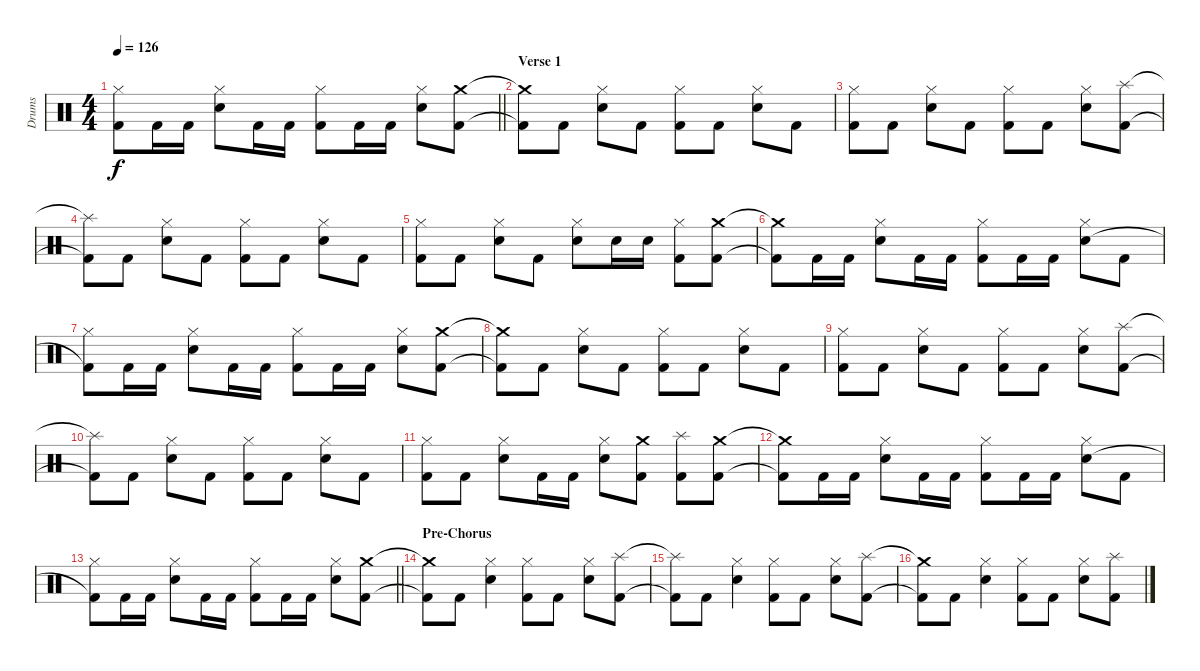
\track ("Drums" "Drums") {instrument percussion}
\staff {score}
\articulation defaults
\ts (4 4)
\tempo 126
\clef neutral
\barLineRight lightlight
\ks c
("Hi-Hat (closed)" "Kick (hit) 2"{t}).8{dy f} "Kick (hit) 2".16 "Kick (hit) 2".16 ("Hi-Hat (closed)" "Snare (hit) 2").8 "Kick (hit) 2".16 "Kick (hit) 2".16 ("Hi-Hat (closed)" "Kick (hit) 2").8 "Kick (hit) 2".16 "Kick (hit) 2".16 ("Hi-Hat (closed)" "Snare (hit) 2").8 ("Crash medium (hit)" "Kick (hit) 2").8 |
\section ("" "Verse 1")
("Crash medium (hit)"{t} "Kick (hit) 2"{t}).8 "Kick (hit) 2".8 ("Hi-Hat (closed)" "Snare (hit) 2").8 "Kick (hit) 2".8 ("Hi-Hat (closed)" "Kick (hit) 2").8 "Kick (hit) 2".8 ("Hi-Hat (closed)" "Snare (hit) 2").8 "Kick (hit) 2".8 |
("Hi-Hat (closed)" "Kick (hit) 2").8 "Kick (hit) 2".8 ("Hi-Hat (closed)" "Snare (hit) 2").8 "Kick (hit) 2".8 ("Hi-Hat (closed)" "Kick (hit) 2").8 "Kick (hit) 2".8 ("Hi-Hat (closed)" "Snare (hit) 2").8 ("Splash (hit)" "Kick (hit) 2").8 |
("Splash (hit)"{t} "Kick (hit) 2"{t}).8 "Kick (hit) 2".8 ("Hi-Hat (closed)" "Snare (hit) 2").8 "Kick (hit) 2".8 ("Hi-Hat (closed)" "Kick (hit) 2").8 "Kick (hit) 2".8 ("Hi-Hat (closed)" "Snare (hit) 2").8 "Kick (hit) 2".8 |
("Hi-Hat (closed)" "Kick (hit) 2").8 "Kick (hit) 2".8 ("Hi-Hat (closed)" "Snare (hit) 2").8 "Kick (hit) 2".8 ("Hi-Hat (closed)" "Snare (hit) 2").8 "Snare (hit) 2".16 "Snare (hit) 2".16 ("Hi-Hat (closed)" "Kick (hit) 2").8 ("Crash medium (hit)" "Kick (hit) 2").8 |
("Crash medium (hit)"{t} "Kick (hit) 2"{t}).8 "Kick (hit) 2".16 "Kick (hit) 2".16 ("Hi-Hat (closed)" "Snare (hit) 2").8 "Kick (hit) 2".16 "Kick (hit) 2".16 ("Hi-Hat (closed)" "Kick (hit) 2").8 "Kick (hit) 2".16 "Kick (hit) 2".16 ("Hi-Hat (closed)" "Snare (hit) 2").8 "Kick (hit) 2".8 |
("Hi-Hat (closed)" "Kick (hit) 2"{t}).8 "Kick (hit) 2".16 "Kick (hit) 2".16 ("Hi-Hat (closed)" "Snare (hit) 2").8 "Kick (hit) 2".16 "Kick (hit) 2".16 ("Hi-Hat (closed)" "Kick (hit) 2").8 "Kick (hit) 2".16 "Kick (hit) 2".16 ("Hi-Hat (closed)" "Snare (hit) 2").8 ("Crash medium (hit)" "Kick (hit) 2").8 |
("Crash medium (hit)"{t} "Kick (hit) 2"{t}).8 "Kick (hit) 2".8 ("Hi-Hat (closed)" "Snare (hit) 2").8 "Kick (hit) 2".8 ("Hi-Hat (closed)" "Kick (hit) 2").8 "Kick (hit) 2".8 ("Hi-Hat (closed)" "Snare (hit) 2").8 "Kick (hit) 2".8 |
("Hi-Hat (closed)" "Kick (hit) 2").8 "Kick (hit) 2".8 ("Hi-Hat (closed)" "Snare (hit) 2").8 "Kick (hit) 2".8 ("Hi-Hat (closed)" "Kick (hit) 2").8 "Kick (hit) 2".8 ("Hi-Hat (closed)" "Snare (hit) 2").8 ("Splash (hit)" "Kick (hit) 2").8 |
("Splash (hit)"{t} "Kick (hit) 2"{t}).8 "Kick (hit) 2".8 ("Hi-Hat (closed)" "Snare (hit) 2").8 "Kick (hit) 2".8 ("Hi-Hat (closed)" "Kick (hit) 2").8 "Kick (hit) 2".8 ("Hi-Hat (closed)" "Snare (hit) 2").8 "Kick (hit) 2".8 |
("Hi-Hat (closed)" "Kick (hit) 2").8 "Kick (hit) 2".8 ("Hi-Hat (closed)" "Snare (hit) 2").8 "Kick (hit) 2".16 "Kick (hit) 2".16 ("Hi-Hat (closed)" "Snare (hit) 2").8 ("Crash medium (hit)" "Kick (hit) 2").8 ("Splash (hit)" "Kick (hit) 2").8 ("Crash medium (hit)" "Kick (hit) 2").8 |
("Crash medium (hit)"{t} "Kick (hit) 2"{t}).8 "Kick (hit) 2".16 "Kick (hit) 2".16 ("Hi-Hat (closed)" "Snare (hit) 2").8 "Kick (hit) 2".16 "Kick (hit) 2".16 ("Hi-Hat (closed)" "Kick (hit) 2").8 "Kick (hit) 2".16 "Kick (hit) 2".16 ("Hi-Hat (closed)" "Snare (hit) 2").8 "Kick (hit) 2".8 |
\barLineRight lightlight
("Hi-Hat (closed)" "Kick (hit) 2"{t}).8 "Kick (hit) 2".16 "Kick (hit) 2".16 ("Hi-Hat (closed)" "Snare (hit) 2").8 "Kick (hit) 2".16 "Kick (hit) 2".16 ("Hi-Hat (closed)" "Kick (hit) 2").8 "Kick (hit) 2".16 "Kick (hit) 2".16 ("Hi-Hat (closed)" "Snare (hit) 2").8 ("Crash medium (hit)" "Kick (hit) 2").8 |
\section ("" "Pre-Chorus")
("Crash medium (hit)"{t} "Kick (hit) 2"{t}).8 "Kick (hit) 2".8 ("Hi-Hat (closed)" "Snare (hit) 2").4 ("Hi-Hat (closed)" "Kick (hit) 2").8 "Kick (hit) 2".8 ("Hi-Hat (closed)" "Snare (hit) 2").8 ("Splash (hit)" "Kick (hit) 2").8 |
("Splash (hit)"{t} "Kick (hit) 2"{t}).8 "Kick (hit) 2".8 ("Hi-Hat (closed)" "Snare (hit) 2").4 ("Hi-Hat (closed)" "Kick (hit) 2").8 "Kick (hit) 2".8 ("Hi-Hat (closed)" "Snare (hit) 2").8 ("Splash (hit)" "Kick (hit) 2").8 |
("Crash medium (hit)"{t} "Kick (hit) 2"{t}).8 "Kick (hit) 2".8 ("Hi-Hat (closed)" "Snare (hit) 2").4 ("Hi-Hat (closed)" "Kick (hit) 2").8 "Kick (hit) 2".8 ("Hi-Hat (closed)" "Snare (hit) 2").8 ("Splash (hit)" "Kick (hit) 2").8
